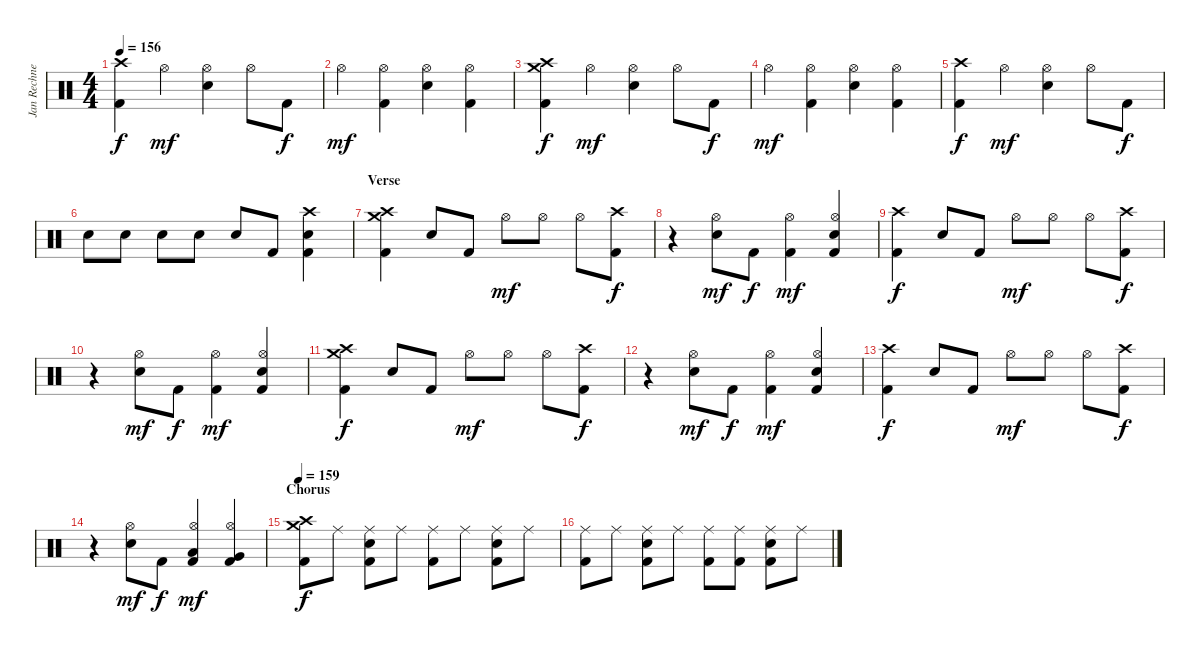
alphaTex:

\track ("Jan Rechnerger" "Jan Rechne") {instrument percussion}
\staff {score}
\articulation defaults
\ts (4 4)
\tempo 156
\clef neutral
\ks c
("Crash high (hit)" "Kick (hit) 2").4{dy f} "Hi-Hat (open)".4{dy mf} ("Hi-Hat (open)" "Snare (hit) 2").4 "Hi-Hat (open)".8 "Kick (hit) 2".8{dy f} |
"Hi-Hat (open)".4{dy mf} ("Hi-Hat (open)" "Kick (hit) 2").4 ("Hi-Hat (open)" "Snare (hit) 2").4 ("Hi-Hat (open)" "Kick (hit) 2").4 |
("Crash high (hit)" "Crash medium (hit)" "Kick (hit) 2").4{dy f} "Hi-Hat (open)".4{dy mf} ("Hi-Hat (open)" "Snare (hit) 2").4 "Hi-Hat (open)".8 "Kick (hit) 2".8{dy f} |
"Hi-Hat (open)".4{dy mf} ("Hi-Hat (open)" "Kick (hit) 2").4 ("Hi-Hat (open)" "Snare (hit) 2").4 ("Hi-Hat (open)" "Kick (hit) 2").4 |
("Crash high (hit)" "Kick (hit) 2").4{dy f} "Hi-Hat (open)".4{dy mf} ("Hi-Hat (open)" "Snare (hit) 2").4 "Hi-Hat (open)".8 "Kick (hit) 2".8{dy f} |
"Snare (hit) 2".8 "Snare (hit) 2".8 "Snare (hit) 2".8 "Snare (hit) 2".8 "Snare (hit) 2".8 "Kick (hit) 2".8 ("Crash high (hit)" "Snare (hit) 2" "Kick (hit) 2").4 |
\section ("" "Verse")
("Crash high (hit)" "Crash medium (hit)" "Kick (hit) 2").4 "Snare (hit) 2".8 "Kick (hit) 2".8 "Hi-Hat (open)".8{dy mf} "Hi-Hat (open)".8 "Hi-Hat (open)".8 ("Crash high (hit)" "Kick (hit) 2").8{dy f} |
r.4 ("Hi-Hat (open)" "Snare (hit) 2").8{dy mf} "Kick (hit) 2".8{dy f} ("Hi-Hat (open)" "Kick (hit) 2").4{dy mf} ("Hi-Hat (open)" "Snare (hit) 2" "Kick (hit) 2").4 |
("Crash high (hit)" "Kick (hit) 2").4{dy f} "Snare (hit) 2".8 "Kick (hit) 2".8 "Hi-Hat (open)".8{dy mf} "Hi-Hat (open)".8 "Hi-Hat (open)".8 ("Crash high (hit)" "Kick (hit) 2").8{dy f} |
r.4 ("Hi-Hat (open)" "Snare (hit) 2").8{dy mf} "Kick (hit) 2".8{dy f} ("Hi-Hat (open)" "Kick (hit) 2").4{dy mf} ("Hi-Hat (open)" "Snare (hit) 2" "Kick (hit) 2").4 |
("Crash high (hit)" "Crash medium (hit)" "Kick (hit) 2").4{dy f} "Snare (hit) 2".8 "Kick (hit) 2".8 "Hi-Hat (open)".8{dy mf} "Hi-Hat (open)".8 "Hi-Hat (open)".8 ("Crash high (hit)" "Kick (hit) 2").8{dy f} |
r.4 ("Hi-Hat (open)" "Snare (hit) 2").8{dy mf} "Kick (hit) 2".8{dy f} ("Hi-Hat (open)" "Kick (hit) 2").4{dy mf} ("Hi-Hat (open)" "Snare (hit) 2" "Kick (hit) 2").4 |
("Crash high (hit)" "Kick (hit) 2").4{dy f} "Snare (hit) 2".8 "Kick (hit) 2".8 "Hi-Hat (open)".8{dy mf} "Hi-Hat (open)".8 "Hi-Hat (open)".8 ("Crash high (hit)" "Kick (hit) 2").8{dy f} |
r.4 ("Hi-Hat (open)" "Snare (hit) 2").8{dy mf} "Kick (hit) 2".8{dy f} ("Hi-Hat (open)" "Low Tom (hit)" "Kick (hit) 2").4{dy mf} ("Hi-Hat (open)" "Very Low Tom (hit)" "Kick (hit) 2").4 |
\section ("" "Chorus")
\tempo 159
("Crash high (hit)" "Crash medium (hit)" "Kick (hit) 2").8{dy f} "Ride (middle)".8 ("Ride (middle)" "Snare (hit) 2" "Kick (hit) 2").8 "Ride (middle)".8 ("Ride (middle)" "Kick (hit) 2").8 "Ride (middle)".8 ("Ride (middle)" "Snare (hit) 2" "Kick (hit) 2").8 "Ride (middle)".8 |
("Ride (middle)" "Kick (hit) 2").8 "Ride (middle)".8 ("Ride (middle)" "Snare (hit) 2" "Kick (hit) 2").8 "Ride (middle)".8 ("Ride (middle)" "Kick (hit) 2").8 ("Ride (middle)" "Kick (hit) 2").8 ("Ride (middle)" "Snare (hit) 2" "Kick (hit) 2").8 "Ride (middle)".8
